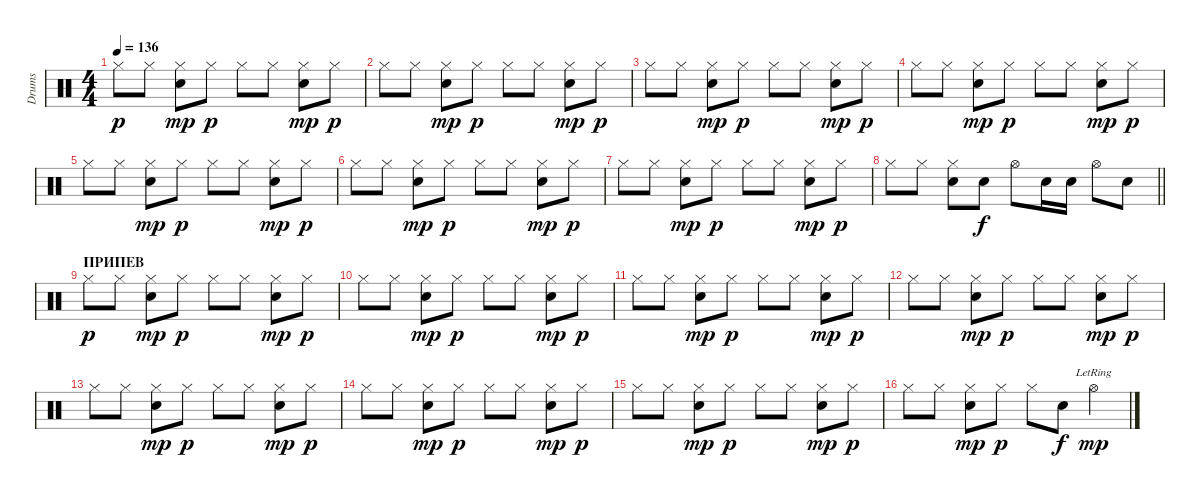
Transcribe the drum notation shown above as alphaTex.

\track ("Drums" "Drums") {instrument percussion}
\staff {score}
\articulation defaults
\ts (4 4)
\tempo 136
\clef neutral
\ks c "Hi-Hat (closed)".8{dy p} "Hi-Hat (closed)".8
("Hi-Hat (closed)" "Electric Snare (hit)").8{dy mp} "Hi-Hat (closed)".8{dy p} "Hi-Hat (closed)".8 "Hi-Hat (closed)".8 ("Hi-Hat (closed)" "Electric Snare (hit)").8{dy mp} "Hi-Hat (closed)".8{dy p} |
"Hi-Hat (closed)".8 "Hi-Hat (closed)".8 ("Hi-Hat (closed)" "Electric Snare (hit)").8{dy mp} "Hi-Hat (closed)".8{dy p} "Hi-Hat (closed)".8 "Hi-Hat (closed)".8 ("Hi-Hat (closed)" "Electric Snare (hit)").8{dy mp} "Hi-Hat (closed)".8{dy p} |
"Hi-Hat (closed)".8 "Hi-Hat (closed)".8 ("Hi-Hat (closed)" "Electric Snare (hit)").8{dy mp} "Hi-Hat (closed)".8{dy p} "Hi-Hat (closed)".8 "Hi-Hat (closed)".8 ("Hi-Hat (closed)" "Electric Snare (hit)").8{dy mp} "Hi-Hat (closed)".8{dy p} |
"Hi-Hat (closed)".8 "Hi-Hat (closed)".8 ("Hi-Hat (closed)" "Electric Snare (hit)").8{dy mp} "Hi-Hat (closed)".8{dy p} "Hi-Hat (closed)".8 "Hi-Hat (closed)".8 ("Hi-Hat (closed)" "Electric Snare (hit)").8{dy mp} "Hi-Hat (closed)".8{dy p} |
"Hi-Hat (closed)".8 "Hi-Hat (closed)".8 ("Hi-Hat (closed)" "Electric Snare (hit)").8{dy mp} "Hi-Hat (closed)".8{dy p} "Hi-Hat (closed)".8 "Hi-Hat (closed)".8 ("Hi-Hat (closed)" "Electric Snare (hit)").8{dy mp} "Hi-Hat (closed)".8{dy p} |
"Hi-Hat (closed)".8 "Hi-Hat (closed)".8 ("Hi-Hat (closed)" "Electric Snare (hit)").8{dy mp} "Hi-Hat (closed)".8{dy p} "Hi-Hat (closed)".8 "Hi-Hat (closed)".8 ("Hi-Hat (closed)" "Electric Snare (hit)").8{dy mp} "Hi-Hat (closed)".8{dy p} |
"Hi-Hat (closed)".8 "Hi-Hat (closed)".8 ("Hi-Hat (closed)" "Electric Snare (hit)").8{dy mp} "Hi-Hat (closed)".8{dy p} "Hi-Hat (closed)".8 "Hi-Hat (closed)".8 ("Hi-Hat (closed)" "Electric Snare (hit)").8{dy mp} "Hi-Hat (closed)".8{dy p} |
\barLineRight lightlight "Hi-Hat (closed)".8 "Hi-Hat (closed)".8
("Hi-Hat (closed)" "Electric Snare (hit)").8 "Electric Snare (hit)".8{dy f} "Hi-Hat (open)".8 "Electric Snare (hit)".16 "Electric Snare (hit)".16 "Hi-Hat (open)".8 "Electric Snare (hit)".8 |
\section ("" "ПРИПЕВ")
"Hi-Hat (closed)".8{dy p} "Hi-Hat (closed)".8 ("Hi-Hat (closed)" "Electric Snare (hit)").8{dy mp} "Hi-Hat (closed)".8{dy p} "Hi-Hat (closed)".8 "Hi-Hat (closed)".8 ("Hi-Hat (closed)" "Electric Snare (hit)").8{dy mp} "Hi-Hat (closed)".8{dy p} |
"Hi-Hat (closed)".8 "Hi-Hat (closed)".8 ("Hi-Hat (closed)" "Electric Snare (hit)").8{dy mp} "Hi-Hat (closed)".8{dy p} "Hi-Hat (closed)".8 "Hi-Hat (closed)".8 ("Hi-Hat (closed)" "Electric Snare (hit)").8{dy mp} "Hi-Hat (closed)".8{dy p} |
"Hi-Hat (closed)".8 "Hi-Hat (closed)".8 ("Hi-Hat (closed)" "Electric Snare (hit)").8{dy mp} "Hi-Hat (closed)".8{dy p} "Hi-Hat (closed)".8 "Hi-Hat (closed)".8 ("Hi-Hat (closed)" "Electric Snare (hit)").8{dy mp} "Hi-Hat (closed)".8{dy p} |
"Hi-Hat (closed)".8 "Hi-Hat (closed)".8 ("Hi-Hat (closed)" "Electric Snare (hit)").8{dy mp} "Hi-Hat (closed)".8{dy p} "Hi-Hat (closed)".8 "Hi-Hat (closed)".8 ("Hi-Hat (closed)" "Electric Snare (hit)").8{dy mp} "Hi-Hat (closed)".8{dy p} |
"Hi-Hat (closed)".8 "Hi-Hat (closed)".8 ("Hi-Hat (closed)" "Electric Snare (hit)").8{dy mp} "Hi-Hat (closed)".8{dy p} "Hi-Hat (closed)".8 "Hi-Hat (closed)".8 ("Hi-Hat (closed)" "Electric Snare (hit)").8{dy mp} "Hi-Hat (closed)".8{dy p} |
"Hi-Hat (closed)".8 "Hi-Hat (closed)".8 ("Hi-Hat (closed)" "Electric Snare (hit)").8{dy mp} "Hi-Hat (closed)".8{dy p} "Hi-Hat (closed)".8 "Hi-Hat (closed)".8 ("Hi-Hat (closed)" "Electric Snare (hit)").8{dy mp} "Hi-Hat (closed)".8{dy p} |
"Hi-Hat (closed)".8 "Hi-Hat (closed)".8 ("Hi-Hat (closed)" "Electric Snare (hit)").8{dy mp} "Hi-Hat (closed)".8{dy p} "Hi-Hat (closed)".8 "Hi-Hat (closed)".8 ("Hi-Hat (closed)" "Electric Snare (hit)").8{dy mp} "Hi-Hat (closed)".8{dy p} |
"Hi-Hat (closed)".8 "Hi-Hat (closed)".8 ("Hi-Hat (closed)" "Electric Snare (hit)").8{dy mp} "Hi-Hat (closed)".8{dy p} "Hi-Hat (closed)".8 "Electric Snare (hit)".8{dy f} "Hi-Hat (open)"{lr}.4{dy mp}
